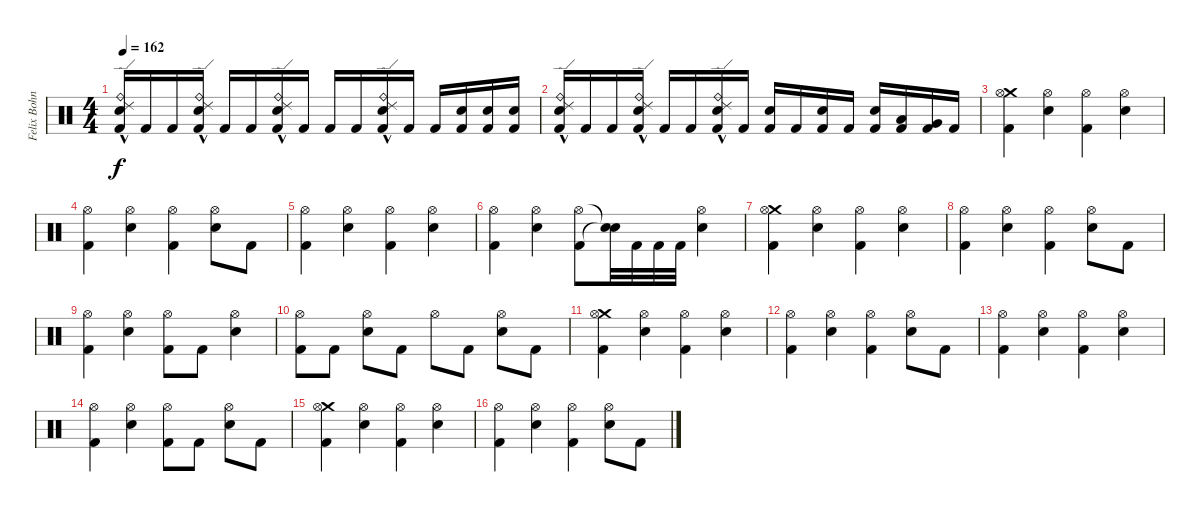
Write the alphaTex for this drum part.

\track ("Felix Bohnke" "Felix Bohn") {instrument percussion}
\staff {score}
\articulation defaults
\ts (4 4)
\tempo 162
\clef neutral
\ks c
("Electric Snare (hit)"{hac} "Ride (bell)"{hac} "Ride (edge) 2"{hac} "Kick (hit) 2").16{dy f} "Kick (hit) 2".16 "Kick (hit) 2".16 ("Electric Snare (hit)"{hac} "Ride (bell)"{hac} "Ride (edge) 2"{hac} "Kick (hit) 2").16 "Kick (hit) 2".16 "Kick (hit) 2".16 ("Electric Snare (hit)"{hac} "Ride (bell)"{hac} "Ride (edge) 2"{hac} "Kick (hit) 2").16 "Kick (hit) 2".16 "Kick (hit) 2".16 "Kick (hit) 2".16 ("Electric Snare (hit)"{hac} "Ride (bell)"{hac} "Ride (edge) 2"{hac} "Kick (hit) 2").16 "Kick (hit) 2".16 "Kick (hit) 2".16 ("Electric Snare (hit)" "Kick (hit) 2").16 ("Electric Snare (hit)" "Kick (hit) 2").16 ("Electric Snare (hit)" "Kick (hit) 2").16 |
("Ride (bell)"{hac} "Electric Snare (hit)"{hac} "Ride (edge) 2"{hac} "Kick (hit) 2").16 "Kick (hit) 2".16 "Kick (hit) 2".16 ("Ride (bell)"{hac} "Electric Snare (hit)"{hac} "Ride (edge) 2"{hac} "Kick (hit) 2").16 "Kick (hit) 2".16 "Kick (hit) 2".16 ("Ride (bell)"{hac} "Electric Snare (hit)" "Ride (edge) 2"{hac} "Kick (hit) 2").16 "Kick (hit) 2".16 ("Electric Snare (hit)" "Kick (hit) 2").16 "Kick (hit) 2".16 ("Electric Snare (hit)" "Kick (hit) 2").16 "Kick (hit) 2".16 ("Electric Snare (hit)" "Kick (hit) 2").16 ("Low Tom (hit)" "Kick (hit) 2").16 ("Very Low Tom (hit)" "Kick (hit) 2").16 "Kick (hit) 2".16 |
("Crash medium (hit)" "Kick (hit) 2" "Hi-Hat (open)").4 ("Electric Snare (hit)" "Hi-Hat (open)").4 ("Kick (hit) 2" "Hi-Hat (open)").4 ("Electric Snare (hit)" "Hi-Hat (open)").4 |
("Kick (hit) 2" "Hi-Hat (open)").4 ("Electric Snare (hit)" "Hi-Hat (open)").4 ("Kick (hit) 2" "Hi-Hat (open)").4 ("Electric Snare (hit)" "Hi-Hat (open)").8 "Kick (hit) 2".8 |
("Kick (hit) 2" "Hi-Hat (open)").4 ("Electric Snare (hit)" "Hi-Hat (open)").4 ("Kick (hit) 2" "Hi-Hat (open)").4 ("Electric Snare (hit)" "Hi-Hat (open)").4 |
("Kick (hit) 2" "Hi-Hat (open)").4 ("Electric Snare (hit)" "Hi-Hat (open)").4 ("Kick (hit) 2" "Hi-Hat (open)").8 ("Snare (hit)"{t} "Snare (hit)"{t}).32 "Kick (hit) 2".32 "Kick (hit) 2".32 "Kick (hit) 2".32 ("Electric Snare (hit)" "Hi-Hat (open)").4 |
("Crash medium (hit)" "Kick (hit) 2" "Hi-Hat (open)").4 ("Electric Snare (hit)" "Hi-Hat (open)").4 ("Kick (hit) 2" "Hi-Hat (open)").4 ("Electric Snare (hit)" "Hi-Hat (open)").4 |
("Kick (hit) 2" "Hi-Hat (open)").4 ("Electric Snare (hit)" "Hi-Hat (open)").4 ("Kick (hit) 2" "Hi-Hat (open)").4 ("Electric Snare (hit)" "Hi-Hat (open)").8 "Kick (hit) 2".8 |
("Kick (hit) 2" "Hi-Hat (open)").4 ("Electric Snare (hit)" "Hi-Hat (open)").4 ("Kick (hit) 2" "Hi-Hat (open)").8 "Kick (hit) 2".8 ("Electric Snare (hit)" "Hi-Hat (open)").4 |
("Kick (hit) 2" "Hi-Hat (open)").8 "Kick (hit) 2".8 ("Electric Snare (hit)" "Hi-Hat (open)").8 "Kick (hit) 2".8 "Hi-Hat (open)".8 "Kick (hit) 2".8 ("Electric Snare (hit)" "Hi-Hat (open)").8 "Kick (hit) 2".8 |
("Crash medium (hit)" "Kick (hit) 2" "Hi-Hat (open)").4 ("Electric Snare (hit)" "Hi-Hat (open)").4 ("Kick (hit) 2" "Hi-Hat (open)").4 ("Electric Snare (hit)" "Hi-Hat (open)").4 |
("Kick (hit) 2" "Hi-Hat (open)").4 ("Electric Snare (hit)" "Hi-Hat (open)").4 ("Kick (hit) 2" "Hi-Hat (open)").4 ("Electric Snare (hit)" "Hi-Hat (open)").8 "Kick (hit) 2".8 |
("Kick (hit) 2" "Hi-Hat (open)").4 ("Electric Snare (hit)" "Hi-Hat (open)").4 ("Kick (hit) 2" "Hi-Hat (open)").4 ("Electric Snare (hit)" "Hi-Hat (open)").4 |
("Kick (hit) 2" "Hi-Hat (open)").4 ("Electric Snare (hit)" "Hi-Hat (open)").4 ("Kick (hit) 2" "Hi-Hat (open)").8 "Kick (hit) 2".8 ("Electric Snare (hit)" "Hi-Hat (open)").8 "Kick (hit) 2".8 |
("Crash medium (hit)" "Kick (hit) 2" "Hi-Hat (open)").4 ("Electric Snare (hit)" "Hi-Hat (open)").4 ("Kick (hit) 2" "Hi-Hat (open)").4 ("Electric Snare (hit)" "Hi-Hat (open)").4 |
("Kick (hit) 2" "Hi-Hat (open)").4 ("Electric Snare (hit)" "Hi-Hat (open)").4 ("Kick (hit) 2" "Hi-Hat (open)").4 ("Electric Snare (hit)" "Hi-Hat (open)").8 "Kick (hit) 2".8
